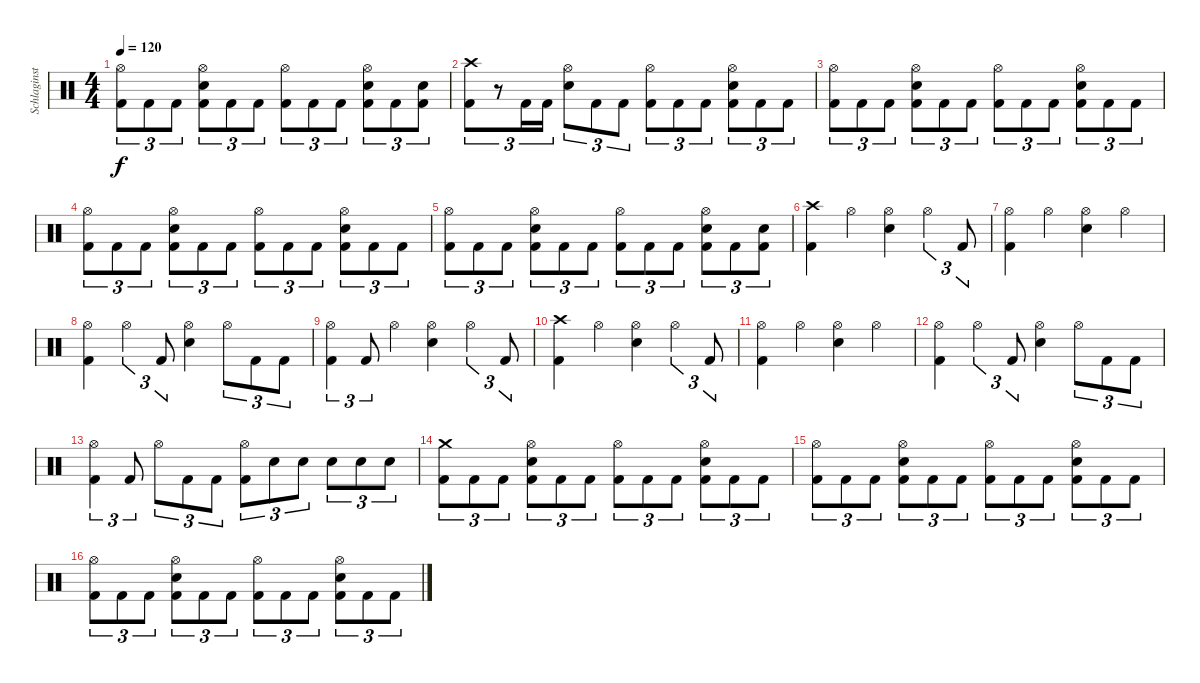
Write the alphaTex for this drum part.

\track ("Schlaginstrumente - Auswahl" "Schlaginst") {instrument percussion}
\staff {score}
\articulation defaults
\ts (4 4)
\tempo 120
\clef neutral
\ks c
("Hi-Hat (open)" "Kick (hit) 2").8{tu (3 2) dy f} "Kick (hit) 2".8{tu (3 2)} "Kick (hit) 2".8{tu (3 2)} ("Hi-Hat (open)" "Electric Snare (hit)" "Kick (hit) 2").8{tu (3 2)} "Kick (hit) 2".8{tu (3 2)} "Kick (hit) 2".8{tu (3 2)} ("Hi-Hat (open)" "Kick (hit) 2").8{tu (3 2)} "Kick (hit) 2".8{tu (3 2)} "Kick (hit) 2".8{tu (3 2)} ("Hi-Hat (open)" "Electric Snare (hit)" "Kick (hit) 2").8{tu (3 2)} "Kick (hit) 2".8{tu (3 2)} ("Electric Snare (hit)" "Kick (hit) 2").8{tu (3 2)} |
("Crash high (hit)" "Kick (hit) 2").8{tu (3 2)} r.8{tu (3 2)} "Kick (hit) 2".16{tu (3 2)} "Kick (hit) 2".16{tu (3 2)} ("Hi-Hat (open)" "Electric Snare (hit)").8{tu (3 2)} "Kick (hit) 2".8{tu (3 2)} "Kick (hit) 2".8{tu (3 2)} ("Hi-Hat (open)" "Kick (hit) 2").8{tu (3 2)} "Kick (hit) 2".8{tu (3 2)} "Kick (hit) 2".8{tu (3 2)} ("Hi-Hat (open)" "Electric Snare (hit)" "Kick (hit) 2").8{tu (3 2)} "Kick (hit) 2".8{tu (3 2)} "Kick (hit) 2".8{tu (3 2)} |
("Hi-Hat (open)" "Kick (hit) 2").8{tu (3 2)} "Kick (hit) 2".8{tu (3 2)} "Kick (hit) 2".8{tu (3 2)} ("Hi-Hat (open)" "Electric Snare (hit)" "Kick (hit) 2").8{tu (3 2)} "Kick (hit) 2".8{tu (3 2)} "Kick (hit) 2".8{tu (3 2)} ("Hi-Hat (open)" "Kick (hit) 2").8{tu (3 2)} "Kick (hit) 2".8{tu (3 2)} "Kick (hit) 2".8{tu (3 2)} ("Hi-Hat (open)" "Electric Snare (hit)" "Kick (hit) 2").8{tu (3 2)} "Kick (hit) 2".8{tu (3 2)} "Kick (hit) 2".8{tu (3 2)} |
("Hi-Hat (open)" "Kick (hit) 2").8{tu (3 2)} "Kick (hit) 2".8{tu (3 2)} "Kick (hit) 2".8{tu (3 2)} ("Hi-Hat (open)" "Electric Snare (hit)" "Kick (hit) 2").8{tu (3 2)} "Kick (hit) 2".8{tu (3 2)} "Kick (hit) 2".8{tu (3 2)} ("Hi-Hat (open)" "Kick (hit) 2").8{tu (3 2)} "Kick (hit) 2".8{tu (3 2)} "Kick (hit) 2".8{tu (3 2)} ("Hi-Hat (open)" "Electric Snare (hit)" "Kick (hit) 2").8{tu (3 2)} "Kick (hit) 2".8{tu (3 2)} "Kick (hit) 2".8{tu (3 2)} |
("Hi-Hat (open)" "Kick (hit) 2").8{tu (3 2)} "Kick (hit) 2".8{tu (3 2)} "Kick (hit) 2".8{tu (3 2)} ("Hi-Hat (open)" "Electric Snare (hit)" "Kick (hit) 2").8{tu (3 2)} "Kick (hit) 2".8{tu (3 2)} "Kick (hit) 2".8{tu (3 2)} ("Hi-Hat (open)" "Kick (hit) 2").8{tu (3 2)} "Kick (hit) 2".8{tu (3 2)} "Kick (hit) 2".8{tu (3 2)} ("Hi-Hat (open)" "Electric Snare (hit)" "Kick (hit) 2").8{tu (3 2)} "Kick (hit) 2".8{tu (3 2)} ("Electric Snare (hit)" "Kick (hit) 2").8{tu (3 2)} |
("Crash high (hit)" "Kick (hit) 2").4 "Hi-Hat (open)".4 ("Hi-Hat (open)" "Electric Snare (hit)").4 "Hi-Hat (open)".4{tu (3 2)} "Kick (hit) 2".8{tu (3 2)} |
("Hi-Hat (open)" "Kick (hit) 2").4 "Hi-Hat (open)".4 ("Hi-Hat (open)" "Electric Snare (hit)").4 "Hi-Hat (open)".4 |
("Hi-Hat (open)" "Kick (hit) 2").4 "Hi-Hat (open)".4{tu (3 2)} "Kick (hit) 2".8{tu (3 2)} ("Hi-Hat (open)" "Electric Snare (hit)").4 "Hi-Hat (open)".8{tu (3 2)} "Kick (hit) 2".8{tu (3 2)} "Kick (hit) 2".8{tu (3 2)} |
("Hi-Hat (open)" "Kick (hit) 2").4{tu (3 2)} "Kick (hit) 2".8{tu (3 2)} "Hi-Hat (open)".4 ("Hi-Hat (open)" "Electric Snare (hit)").4 "Hi-Hat (open)".4{tu (3 2)} "Kick (hit) 2".8{tu (3 2)} |
("Crash high (hit)" "Kick (hit) 2").4 "Hi-Hat (open)".4 ("Hi-Hat (open)" "Electric Snare (hit)").4 "Hi-Hat (open)".4{tu (3 2)} "Kick (hit) 2".8{tu (3 2)} |
("Hi-Hat (open)" "Kick (hit) 2").4 "Hi-Hat (open)".4 ("Hi-Hat (open)" "Electric Snare (hit)").4 "Hi-Hat (open)".4 |
("Hi-Hat (open)" "Kick (hit) 2").4 "Hi-Hat (open)".4{tu (3 2)} "Kick (hit) 2".8{tu (3 2)} ("Hi-Hat (open)" "Electric Snare (hit)").4 "Hi-Hat (open)".8{tu (3 2)} "Kick (hit) 2".8{tu (3 2)} "Kick (hit) 2".8{tu (3 2)} |
("Hi-Hat (open)" "Kick (hit) 2").4{tu (3 2)} "Kick (hit) 2".8{tu (3 2)} "Hi-Hat (open)".8{tu (3 2)} "Kick (hit) 2".8{tu (3 2)} "Kick (hit) 2".8{tu (3 2)} ("Hi-Hat (open)" "Kick (hit) 2").8{tu (3 2)} "Electric Snare (hit)".8{tu (3 2)} "Electric Snare (hit)".8{tu (3 2)} "Electric Snare (hit)".8{tu (3 2)} "Electric Snare (hit)".8{tu (3 2)} "Electric Snare (hit)".8{tu (3 2)} |
("Crash medium (hit)" "Kick (hit) 2").8{tu (3 2)} "Kick (hit) 2".8{tu (3 2)} "Kick (hit) 2".8{tu (3 2)} ("Hi-Hat (open)" "Electric Snare (hit)" "Kick (hit) 2").8{tu (3 2)} "Kick (hit) 2".8{tu (3 2)} "Kick (hit) 2".8{tu (3 2)} ("Hi-Hat (open)" "Kick (hit) 2").8{tu (3 2)} "Kick (hit) 2".8{tu (3 2)} "Kick (hit) 2".8{tu (3 2)} ("Hi-Hat (open)" "Electric Snare (hit)" "Kick (hit) 2").8{tu (3 2)} "Kick (hit) 2".8{tu (3 2)} "Kick (hit) 2".8{tu (3 2)} |
("Hi-Hat (open)" "Kick (hit) 2").8{tu (3 2)} "Kick (hit) 2".8{tu (3 2)} "Kick (hit) 2".8{tu (3 2)} ("Hi-Hat (open)" "Electric Snare (hit)" "Kick (hit) 2").8{tu (3 2)} "Kick (hit) 2".8{tu (3 2)} "Kick (hit) 2".8{tu (3 2)} ("Hi-Hat (open)" "Kick (hit) 2").8{tu (3 2)} "Kick (hit) 2".8{tu (3 2)} "Kick (hit) 2".8{tu (3 2)} ("Hi-Hat (open)" "Electric Snare (hit)" "Kick (hit) 2").8{tu (3 2)} "Kick (hit) 2".8{tu (3 2)} "Kick (hit) 2".8{tu (3 2)} |
("Hi-Hat (open)" "Kick (hit) 2").8{tu (3 2)} "Kick (hit) 2".8{tu (3 2)} "Kick (hit) 2".8{tu (3 2)} ("Hi-Hat (open)" "Electric Snare (hit)" "Kick (hit) 2").8{tu (3 2)} "Kick (hit) 2".8{tu (3 2)} "Kick (hit) 2".8{tu (3 2)} ("Hi-Hat (open)" "Kick (hit) 2").8{tu (3 2)} "Kick (hit) 2".8{tu (3 2)} "Kick (hit) 2".8{tu (3 2)} ("Hi-Hat (open)" "Electric Snare (hit)" "Kick (hit) 2").8{tu (3 2)} "Kick (hit) 2".8{tu (3 2)} "Kick (hit) 2".8{tu (3 2)}
